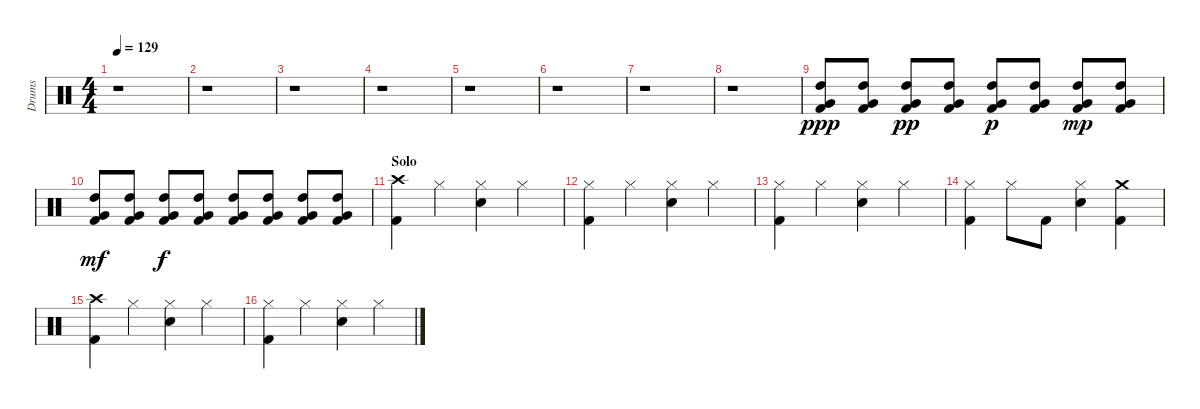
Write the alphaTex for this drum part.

\track ("Drums" "Drums") {instrument percussion}
\staff {score}
\articulation defaults
\ts (4 4)
\tempo 129
\clef neutral
\ks c
r.1{dy ppp} |
r.1 |
r.1 |
r.1 |
r.1 |
r.1 |
r.1 |
r.1 |
("Kick (hit) 2" "Very Low Tom (hit)" "High Tom (hit)").8 ("Kick (hit) 2" "Very Low Tom (hit)" "High Tom (hit)").8 ("Kick (hit) 2" "Very Low Tom (hit)" "High Tom (hit)").8{dy pp} ("Kick (hit) 2" "Very Low Tom (hit)" "High Tom (hit)").8 ("Kick (hit) 2" "Very Low Tom (hit)" "High Tom (hit)").8{dy p} ("Kick (hit) 2" "Very Low Tom (hit)" "High Tom (hit)").8 ("Kick (hit) 2" "Very Low Tom (hit)" "High Tom (hit)").8{dy mp} ("Kick (hit) 2" "Very Low Tom (hit)" "High Tom (hit)").8 |
("Kick (hit) 2" "Very Low Tom (hit)" "High Tom (hit)").8{dy mf} ("Kick (hit) 2" "Very Low Tom (hit)" "High Tom (hit)").8 ("Kick (hit) 2" "Very Low Tom (hit)" "High Tom (hit)").8{dy f} ("Kick (hit) 2" "Very Low Tom (hit)" "High Tom (hit)").8 ("Kick (hit) 2" "Very Low Tom (hit)" "High Tom (hit)").8 ("Kick (hit) 2" "Very Low Tom (hit)" "High Tom (hit)").8 ("Kick (hit) 2" "Very Low Tom (hit)" "High Tom (hit)").8 ("Kick (hit) 2" "Very Low Tom (hit)" "High Tom (hit)").8 |
\section ("" "Solo")
("Kick (hit) 2" "Crash high (hit)").4 "Hi-Hat (closed)".4 ("Electric Snare (hit)" "Hi-Hat (closed)").4 "Hi-Hat (closed)".4 |
("Kick (hit) 2" "Hi-Hat (closed)").4 "Hi-Hat (closed)".4 ("Electric Snare (hit)" "Hi-Hat (closed)").4 "Hi-Hat (closed)".4 |
("Kick (hit) 2" "Hi-Hat (closed)").4 "Hi-Hat (closed)".4 ("Electric Snare (hit)" "Hi-Hat (closed)").4 "Hi-Hat (closed)".4 |
("Kick (hit) 2" "Hi-Hat (closed)").4 "Hi-Hat (closed)".8 "Kick (hit) 2".8 ("Electric Snare (hit)" "Hi-Hat (closed)").4 ("Kick (hit) 2" "Crash medium (hit)").4 |
("Kick (hit) 2" "Crash high (hit)").4 "Hi-Hat (closed)".4 ("Electric Snare (hit)" "Hi-Hat (closed)").4 "Hi-Hat (closed)".4 |
("Kick (hit) 2" "Hi-Hat (closed)").4 "Hi-Hat (closed)".4 ("Electric Snare (hit)" "Hi-Hat (closed)").4 "Hi-Hat (closed)".4
